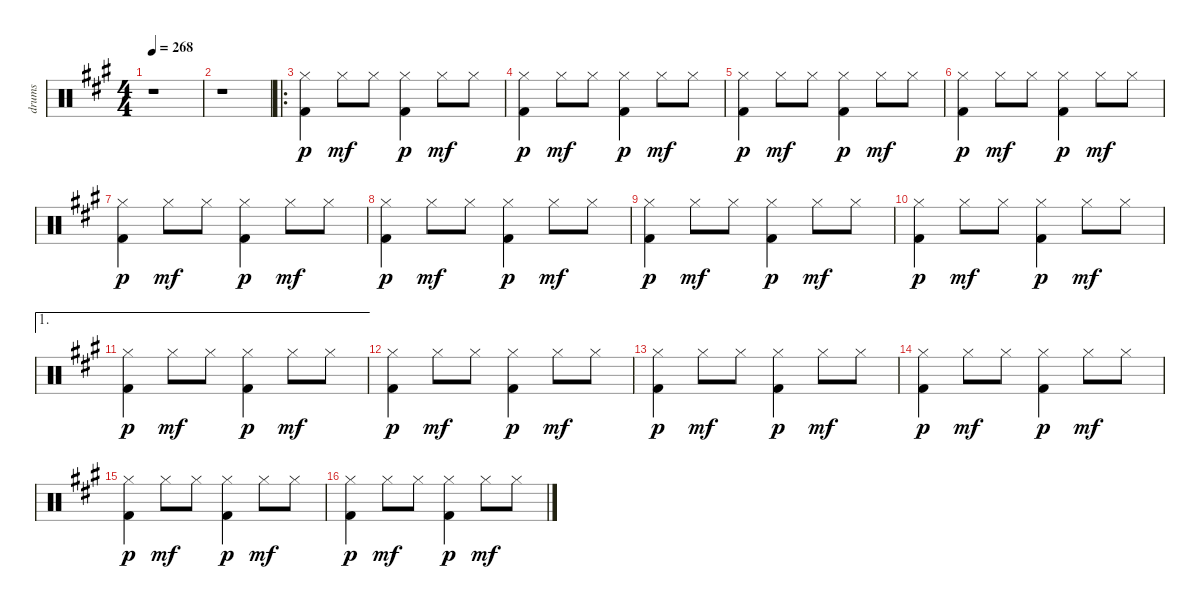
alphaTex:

\track ("drums" "drums") {instrument percussion}
\staff {score}
\articulation defaults
\ts (4 4)
\tempo 268
\clef neutral
\ks a
r.1{dy p} |
r.1 |
\ro
("Hi-Hat (closed)" "Kick (hit) 2").4 "Hi-Hat (closed)".8{dy mf} "Hi-Hat (closed)".8 ("Hi-Hat (closed)" "Kick (hit) 2").4{dy p} "Hi-Hat (closed)".8{dy mf} "Hi-Hat (closed)".8 |
("Hi-Hat (closed)" "Kick (hit) 2").4{dy p} "Hi-Hat (closed)".8{dy mf} "Hi-Hat (closed)".8 ("Hi-Hat (closed)" "Kick (hit) 2").4{dy p} "Hi-Hat (closed)".8{dy mf} "Hi-Hat (closed)".8 |
("Hi-Hat (closed)" "Kick (hit) 2").4{dy p} "Hi-Hat (closed)".8{dy mf} "Hi-Hat (closed)".8 ("Hi-Hat (closed)" "Kick (hit) 2").4{dy p} "Hi-Hat (closed)".8{dy mf} "Hi-Hat (closed)".8 |
("Hi-Hat (closed)" "Kick (hit) 2").4{dy p} "Hi-Hat (closed)".8{dy mf} "Hi-Hat (closed)".8 ("Hi-Hat (closed)" "Kick (hit) 2").4{dy p} "Hi-Hat (closed)".8{dy mf} "Hi-Hat (closed)".8 |
("Hi-Hat (closed)" "Kick (hit) 2").4{dy p} "Hi-Hat (closed)".8{dy mf} "Hi-Hat (closed)".8 ("Hi-Hat (closed)" "Kick (hit) 2").4{dy p} "Hi-Hat (closed)".8{dy mf} "Hi-Hat (closed)".8 |
("Hi-Hat (closed)" "Kick (hit) 2").4{dy p} "Hi-Hat (closed)".8{dy mf} "Hi-Hat (closed)".8 ("Hi-Hat (closed)" "Kick (hit) 2").4{dy p} "Hi-Hat (closed)".8{dy mf} "Hi-Hat (closed)".8 |
("Hi-Hat (closed)" "Kick (hit) 2").4{dy p} "Hi-Hat (closed)".8{dy mf} "Hi-Hat (closed)".8 ("Hi-Hat (closed)" "Kick (hit) 2").4{dy p} "Hi-Hat (closed)".8{dy mf} "Hi-Hat (closed)".8 |
("Hi-Hat (closed)" "Kick (hit) 2").4{dy p} "Hi-Hat (closed)".8{dy mf} "Hi-Hat (closed)".8 ("Hi-Hat (closed)" "Kick (hit) 2").4{dy p} "Hi-Hat (closed)".8{dy mf} "Hi-Hat (closed)".8 |
\ae 1
("Hi-Hat (closed)" "Kick (hit) 2").4{dy p} "Hi-Hat (closed)".8{dy mf} "Hi-Hat (closed)".8 ("Hi-Hat (closed)" "Kick (hit) 2").4{dy p} "Hi-Hat (closed)".8{dy mf} "Hi-Hat (closed)".8 |
("Hi-Hat (closed)" "Kick (hit) 2").4{dy p} "Hi-Hat (closed)".8{dy mf} "Hi-Hat (closed)".8 ("Hi-Hat (closed)" "Kick (hit) 2").4{dy p} "Hi-Hat (closed)".8{dy mf} "Hi-Hat (closed)".8 |
("Hi-Hat (closed)" "Kick (hit) 2").4{dy p} "Hi-Hat (closed)".8{dy mf} "Hi-Hat (closed)".8 ("Hi-Hat (closed)" "Kick (hit) 2").4{dy p} "Hi-Hat (closed)".8{dy mf} "Hi-Hat (closed)".8 |
("Hi-Hat (closed)" "Kick (hit) 2").4{dy p} "Hi-Hat (closed)".8{dy mf} "Hi-Hat (closed)".8 ("Hi-Hat (closed)" "Kick (hit) 2").4{dy p} "Hi-Hat (closed)".8{dy mf} "Hi-Hat (closed)".8 |
("Hi-Hat (closed)" "Kick (hit) 2").4{dy p} "Hi-Hat (closed)".8{dy mf} "Hi-Hat (closed)".8 ("Hi-Hat (closed)" "Kick (hit) 2").4{dy p} "Hi-Hat (closed)".8{dy mf} "Hi-Hat (closed)".8 |
("Hi-Hat (closed)" "Kick (hit) 2").4{dy p} "Hi-Hat (closed)".8{dy mf} "Hi-Hat (closed)".8 ("Hi-Hat (closed)" "Kick (hit) 2").4{dy p} "Hi-Hat (closed)".8{dy mf} "Hi-Hat (closed)".8
